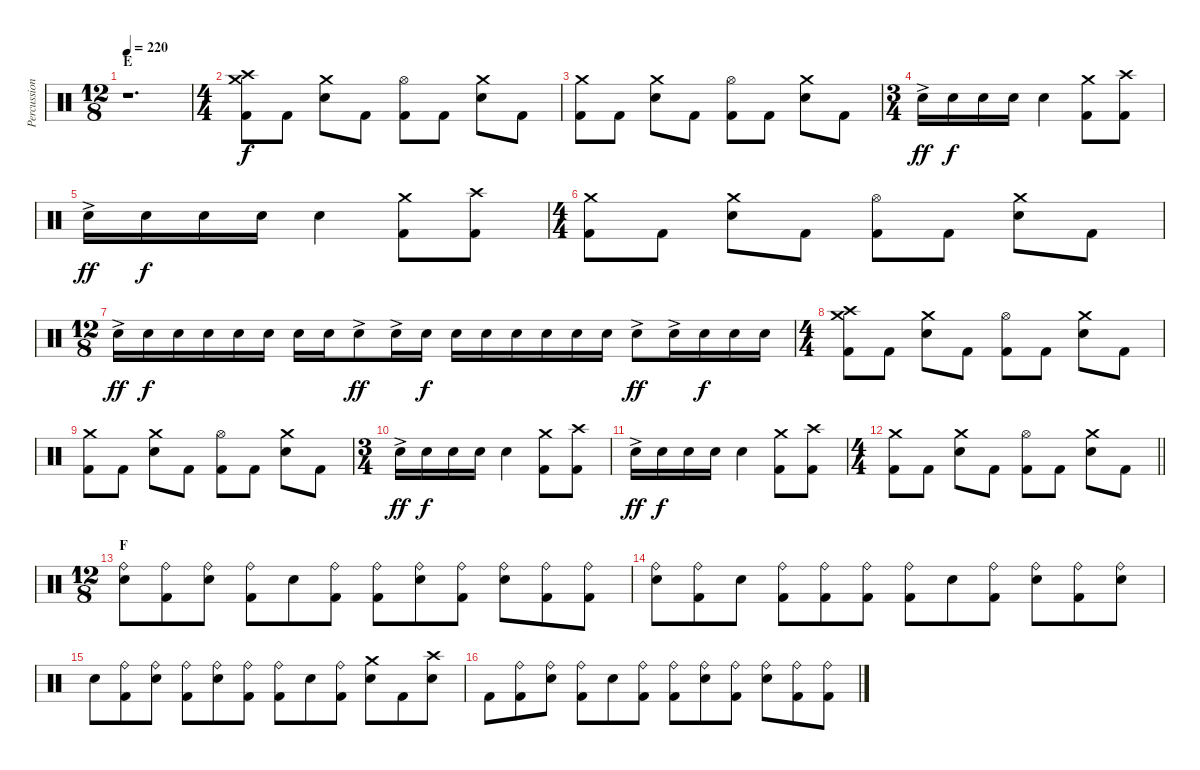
\track ("Percussion" "Percussion") {instrument percussion}
\staff {score}
\articulation defaults
\ts (12 8)
\section ("" "E")
\tempo 220
\clef neutral
\ks c
r.1{d dy f volume 0} |
\ts (4 4)
("Crash medium (hit)" "Crash high (hit)" "Kick (hit) 2").8{volume 14} "Kick (hit) 2".8 ("Crash medium (hit)" "Electric Snare (hit)").8 "Kick (hit) 2".8 ("Hi-Hat (open)" "Kick (hit) 2").8 "Kick (hit) 2".8 ("Crash medium (hit)" "Electric Snare (hit)").8 "Kick (hit) 2".8 |
("Crash medium (hit)" "Kick (hit) 2").8 "Kick (hit) 2".8 ("Crash medium (hit)" "Electric Snare (hit)").8 "Kick (hit) 2".8 ("Hi-Hat (open)" "Kick (hit) 2").8 "Kick (hit) 2".8 ("Crash medium (hit)" "Electric Snare (hit)").8 "Kick (hit) 2".8 |
\ts (3 4)
"Electric Snare (hit)"{ac}.16{dy ff} "Electric Snare (hit)".16{dy f} "Electric Snare (hit)".16 "Electric Snare (hit)".16 "Electric Snare (hit)".4 ("Crash medium (hit)" "Kick (hit) 2").8 ("Crash high (hit)" "Kick (hit) 2").8 |
"Electric Snare (hit)"{ac}.16{dy ff} "Electric Snare (hit)".16{dy f} "Electric Snare (hit)".16 "Electric Snare (hit)".16 "Electric Snare (hit)".4 ("Crash medium (hit)" "Kick (hit) 2").8 ("Crash high (hit)" "Kick (hit) 2").8 |
\ts (4 4)
("Crash medium (hit)" "Kick (hit) 2").8 "Kick (hit) 2".8 ("Crash medium (hit)" "Electric Snare (hit)").8 "Kick (hit) 2".8 ("Hi-Hat (open)" "Kick (hit) 2").8 "Kick (hit) 2".8 ("Crash medium (hit)" "Electric Snare (hit)").8 "Kick (hit) 2".8 |
\ts (12 8)
"Electric Snare (hit)"{ac}.16{dy ff volume 10} "Electric Snare (hit)".16{dy f} "Electric Snare (hit)".16 "Electric Snare (hit)".16 "Electric Snare (hit)".16 "Electric Snare (hit)".16 "Electric Snare (hit)".16 "Electric Snare (hit)".16 "Electric Snare (hit)"{ac}.8{dy ff} "Electric Snare (hit)"{ac}.16 "Electric Snare (hit)".16{dy f} "Electric Snare (hit)".16 "Electric Snare (hit)".16 "Electric Snare (hit)".16 "Electric Snare (hit)".16 "Electric Snare (hit)".16 "Electric Snare (hit)".16 "Electric Snare (hit)"{ac}.8{dy ff} "Electric Snare (hit)"{ac}.16 "Electric Snare (hit)".16{dy f} "Electric Snare (hit)".16 "Electric Snare (hit)".16 |
\ts (4 4)
("Crash medium (hit)" "Crash high (hit)" "Kick (hit) 2").8{volume 14} "Kick (hit) 2".8 ("Crash medium (hit)" "Electric Snare (hit)").8 "Kick (hit) 2".8 ("Hi-Hat (open)" "Kick (hit) 2").8 "Kick (hit) 2".8 ("Crash medium (hit)" "Electric Snare (hit)").8 "Kick (hit) 2".8 |
("Crash medium (hit)" "Kick (hit) 2").8 "Kick (hit) 2".8 ("Crash medium (hit)" "Electric Snare (hit)").8 "Kick (hit) 2".8 ("Hi-Hat (open)" "Kick (hit) 2").8 "Kick (hit) 2".8 ("Crash medium (hit)" "Electric Snare (hit)").8 "Kick (hit) 2".8 |
\ts (3 4)
"Electric Snare (hit)"{ac}.16{dy ff} "Electric Snare (hit)".16{dy f} "Electric Snare (hit)".16 "Electric Snare (hit)".16 "Electric Snare (hit)".4 ("Crash medium (hit)" "Kick (hit) 2").8 ("Crash high (hit)" "Kick (hit) 2").8 |
"Electric Snare (hit)"{ac}.16{dy ff} "Electric Snare (hit)".16{dy f} "Electric Snare (hit)".16 "Electric Snare (hit)".16 "Electric Snare (hit)".4 ("Crash medium (hit)" "Kick (hit) 2").8 ("Crash high (hit)" "Kick (hit) 2").8 |
\ts (4 4)
\barLineRight lightlight
("Crash medium (hit)" "Kick (hit) 2").8 "Kick (hit) 2".8 ("Crash medium (hit)" "Electric Snare (hit)").8 "Kick (hit) 2".8 ("Hi-Hat (open)" "Kick (hit) 2").8 "Kick (hit) 2".8 ("Crash medium (hit)" "Electric Snare (hit)").8 "Kick (hit) 2".8 |
\ts (12 8)
\section ("" "F")
("Ride (bell)" "Electric Snare (hit)").8{volume 12} ("Ride (bell)" "Kick (hit) 2").8 ("Ride (bell)" "Electric Snare (hit)").8 ("Ride (bell)" "Kick (hit) 2").8 "Electric Snare (hit)".8 ("Ride (bell)" "Kick (hit) 2").8 ("Ride (bell)" "Kick (hit) 2").8 ("Ride (bell)" "Electric Snare (hit)").8 ("Ride (bell)" "Kick (hit) 2").8 ("Ride (bell)" "Electric Snare (hit)").8 ("Ride (bell)" "Kick (hit) 2").8 ("Ride (bell)" "Kick (hit) 2").8 |
("Ride (bell)" "Electric Snare (hit)").8 ("Ride (bell)" "Kick (hit) 2").8 "Electric Snare (hit)".8 ("Ride (bell)" "Kick (hit) 2").8 ("Ride (bell)" "Kick (hit) 2").8 ("Ride (bell)" "Kick (hit) 2").8 ("Ride (bell)" "Kick (hit) 2").8 "Electric Snare (hit)".8 ("Ride (bell)" "Kick (hit) 2").8 ("Ride (bell)" "Electric Snare (hit)").8 ("Ride (bell)" "Kick (hit) 2").8 ("Ride (bell)" "Electric Snare (hit)").8 |
"Electric Snare (hit)".8 ("Ride (bell)" "Kick (hit) 2").8 ("Ride (bell)" "Electric Snare (hit)").8 ("Ride (bell)" "Kick (hit) 2").8 ("Ride (bell)" "Electric Snare (hit)").8 ("Ride (bell)" "Kick (hit) 2").8 ("Ride (bell)" "Kick (hit) 2").8 "Electric Snare (hit)".8 ("Ride (bell)" "Kick (hit) 2").8 ("Crash medium (hit)" "Electric Snare (hit)").8 "Kick (hit) 2".8 ("Crash high (hit)" "Electric Snare (hit)").8 |
"Kick (hit) 2".8 ("Ride (bell)" "Kick (hit) 2").8 ("Ride (bell)" "Electric Snare (hit)").8 ("Ride (bell)" "Kick (hit) 2").8 "Electric Snare (hit)".8 ("Ride (bell)" "Kick (hit) 2").8 ("Ride (bell)" "Kick (hit) 2").8 ("Ride (bell)" "Electric Snare (hit)").8 ("Ride (bell)" "Kick (hit) 2").8 ("Ride (bell)" "Electric Snare (hit)").8 ("Ride (bell)" "Kick (hit) 2").8 ("Ride (bell)" "Kick (hit) 2").8
